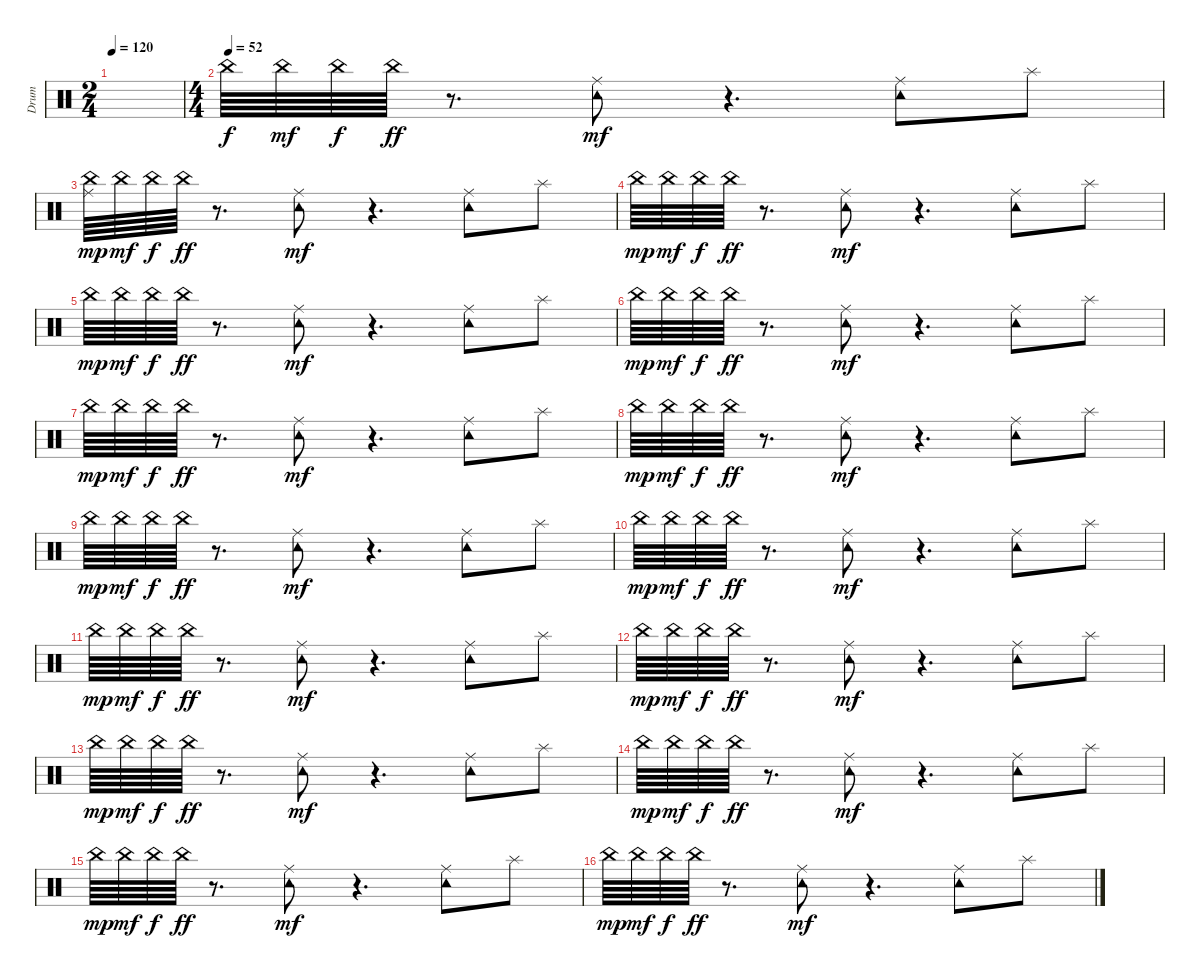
\track ("Drum" "Drum") {instrument percussion}
\staff {score}
\articulation defaults
\ts (2 4)
\tempo 120
\clef neutral
\ks c
|
\ts (4 4)
\tempo (52)
"China (hit)".64 "China (hit)".64{dy mf} "China (hit)".64{dy f} "China (hit)".64{dy ff} r.8{d} ("Tambourine (hit)" "Ride (middle)").8{dy mf} r.4{d} ("Tambourine (hit)" "Ride (middle)").8 "Splash (hit)".8 |
("China (hit)" "Ride (middle)").64{dy mp} "China (hit)".64{dy mf} "China (hit)".64{dy f} "China (hit)".64{dy ff} r.8{d} ("Tambourine (hit)" "Ride (middle)").8{dy mf} r.4{d} ("Tambourine (hit)" "Ride (middle)").8 "Splash (hit)".8 |
"China (hit)".64{dy mp} "China (hit)".64{dy mf} "China (hit)".64{dy f} "China (hit)".64{dy ff} r.8{d} ("Tambourine (hit)" "Ride (middle)").8{dy mf} r.4{d} ("Tambourine (hit)" "Ride (middle)").8 "Splash (hit)".8 |
"China (hit)".64{dy mp} "China (hit)".64{dy mf} "China (hit)".64{dy f} "China (hit)".64{dy ff} r.8{d} ("Tambourine (hit)" "Ride (middle)").8{dy mf} r.4{d} ("Tambourine (hit)" "Ride (middle)").8 "Splash (hit)".8 |
"China (hit)".64{dy mp} "China (hit)".64{dy mf} "China (hit)".64{dy f} "China (hit)".64{dy ff} r.8{d} ("Tambourine (hit)" "Ride (middle)").8{dy mf} r.4{d} ("Tambourine (hit)" "Ride (middle)").8 "Splash (hit)".8 |
"China (hit)".64{dy mp} "China (hit)".64{dy mf} "China (hit)".64{dy f} "China (hit)".64{dy ff} r.8{d} ("Tambourine (hit)" "Ride (middle)").8{dy mf} r.4{d} ("Tambourine (hit)" "Ride (middle)").8 "Splash (hit)".8 |
"China (hit)".64{dy mp} "China (hit)".64{dy mf} "China (hit)".64{dy f} "China (hit)".64{dy ff} r.8{d} ("Tambourine (hit)" "Ride (middle)").8{dy mf} r.4{d} ("Tambourine (hit)" "Ride (middle)").8 "Splash (hit)".8 |
"China (hit)".64{dy mp} "China (hit)".64{dy mf} "China (hit)".64{dy f} "China (hit)".64{dy ff} r.8{d} ("Tambourine (hit)" "Ride (middle)").8{dy mf} r.4{d} ("Tambourine (hit)" "Ride (middle)").8 "Splash (hit)".8 |
"China (hit)".64{dy mp} "China (hit)".64{dy mf} "China (hit)".64{dy f} "China (hit)".64{dy ff} r.8{d} ("Tambourine (hit)" "Ride (middle)").8{dy mf} r.4{d} ("Tambourine (hit)" "Ride (middle)").8 "Splash (hit)".8 |
"China (hit)".64{dy mp} "China (hit)".64{dy mf} "China (hit)".64{dy f} "China (hit)".64{dy ff} r.8{d} ("Tambourine (hit)" "Ride (middle)").8{dy mf} r.4{d} ("Tambourine (hit)" "Ride (middle)").8 "Splash (hit)".8 |
"China (hit)".64{dy mp} "China (hit)".64{dy mf} "China (hit)".64{dy f} "China (hit)".64{dy ff} r.8{d} ("Tambourine (hit)" "Ride (middle)").8{dy mf} r.4{d} ("Tambourine (hit)" "Ride (middle)").8 "Splash (hit)".8 |
"China (hit)".64{dy mp} "China (hit)".64{dy mf} "China (hit)".64{dy f} "China (hit)".64{dy ff} r.8{d} ("Tambourine (hit)" "Ride (middle)").8{dy mf} r.4{d} ("Tambourine (hit)" "Ride (middle)").8 "Splash (hit)".8 |
"China (hit)".64{dy mp} "China (hit)".64{dy mf} "China (hit)".64{dy f} "China (hit)".64{dy ff} r.8{d} ("Tambourine (hit)" "Ride (middle)").8{dy mf} r.4{d} ("Tambourine (hit)" "Ride (middle)").8 "Splash (hit)".8 |
"China (hit)".64{dy mp} "China (hit)".64{dy mf} "China (hit)".64{dy f} "China (hit)".64{dy ff} r.8{d} ("Tambourine (hit)" "Ride (middle)").8{dy mf} r.4{d} ("Tambourine (hit)" "Ride (middle)").8 "Splash (hit)".8 |
"China (hit)".64{dy mp} "China (hit)".64{dy mf} "China (hit)".64{dy f} "China (hit)".64{dy ff} r.8{d} ("Tambourine (hit)" "Ride (middle)").8{dy mf} r.4{d} ("Tambourine (hit)" "Ride (middle)").8 "Splash (hit)".8
